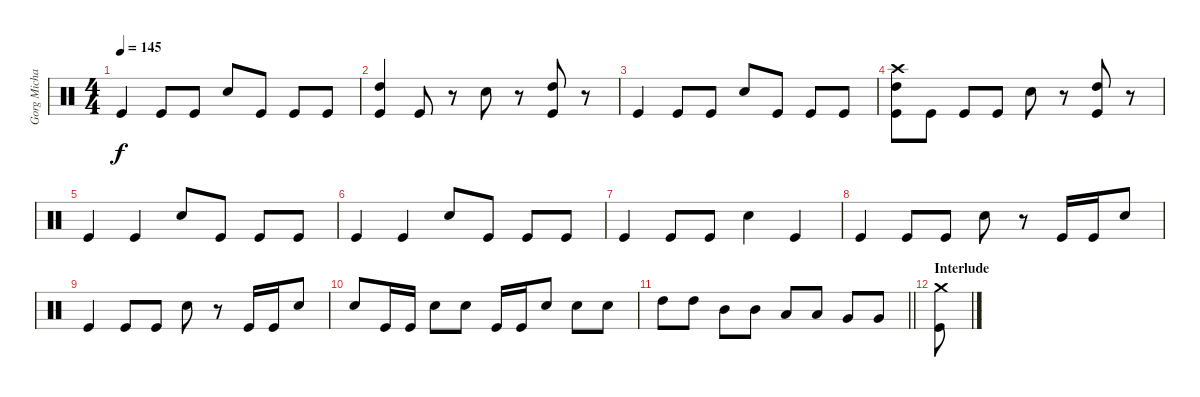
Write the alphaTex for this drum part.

\track ("Gorg Michael" "Gorg Micha") {instrument percussion}
\staff {score}
\articulation defaults
\ts (4 4)
\tempo 145
\clef neutral
\ks c "Kick (hit)".4{dy f} "Kick (hit)".8 "Kick (hit)".8 "Snare (hit) 2".8 "Kick (hit)".8 "Kick (hit)".8 "Kick (hit)".8
|
("High Tom (hit)" "Kick (hit)").4 "Kick (hit)".8 r.8 "Snare (hit) 2".8 r.8 ("High Tom (hit)" "Kick (hit)").8 r.8 |
"Kick (hit)".4 "Kick (hit)".8 "Kick (hit)".8 "Snare (hit) 2".8 "Kick (hit)".8 "Kick (hit)".8 "Kick (hit)".8 |
("Crash high (hit)" "High Tom (hit)" "Kick (hit)").8 "Kick (hit)".8 "Kick (hit)".8 "Kick (hit)".8 "Snare (hit) 2".8 r.8 ("High Tom (hit)" "Kick (hit)").8 r.8 |
"Kick (hit)".4 "Kick (hit)".4 "Snare (hit) 2".8 "Kick (hit)".8 "Kick (hit)".8 "Kick (hit)".8 |
"Kick (hit)".4 "Kick (hit)".4 "Snare (hit) 2".8 "Kick (hit)".8 "Kick (hit)".8 "Kick (hit)".8 |
"Kick (hit)".4 "Kick (hit)".8 "Kick (hit)".8 "Snare (hit) 2".4 "Kick (hit)".4 |
"Kick (hit)".4 "Kick (hit)".8 "Kick (hit)".8 "Snare (hit) 2".8 r.8 "Kick (hit)".16 "Kick (hit)".16 "Snare (hit) 2".8 |
"Kick (hit)".4 "Kick (hit)".8 "Kick (hit)".8 "Snare (hit) 2".8 r.8 "Kick (hit)".16 "Kick (hit)".16 "Snare (hit) 2".8 |
"Snare (hit) 2".8 "Kick (hit)".16 "Kick (hit)".16 "Snare (hit) 2".8 "Snare (hit) 2".8 "Kick (hit)".16 "Kick (hit)".16 "Snare (hit) 2".8 "Snare (hit) 2".8 "Snare (hit) 2".8 |
\barLineRight lightlight "High Tom (hit)".8 "High Tom (hit)".8 "Mid Tom (hit)".8 "Mid Tom (hit)".8 "Low Tom (hit)".8 "Low Tom (hit)".8 "Very Low Tom (hit)".8 "Very Low Tom (hit)".8
|
\section ("" "Interlude")
("Crash medium (hit)" "Kick (hit)").8
